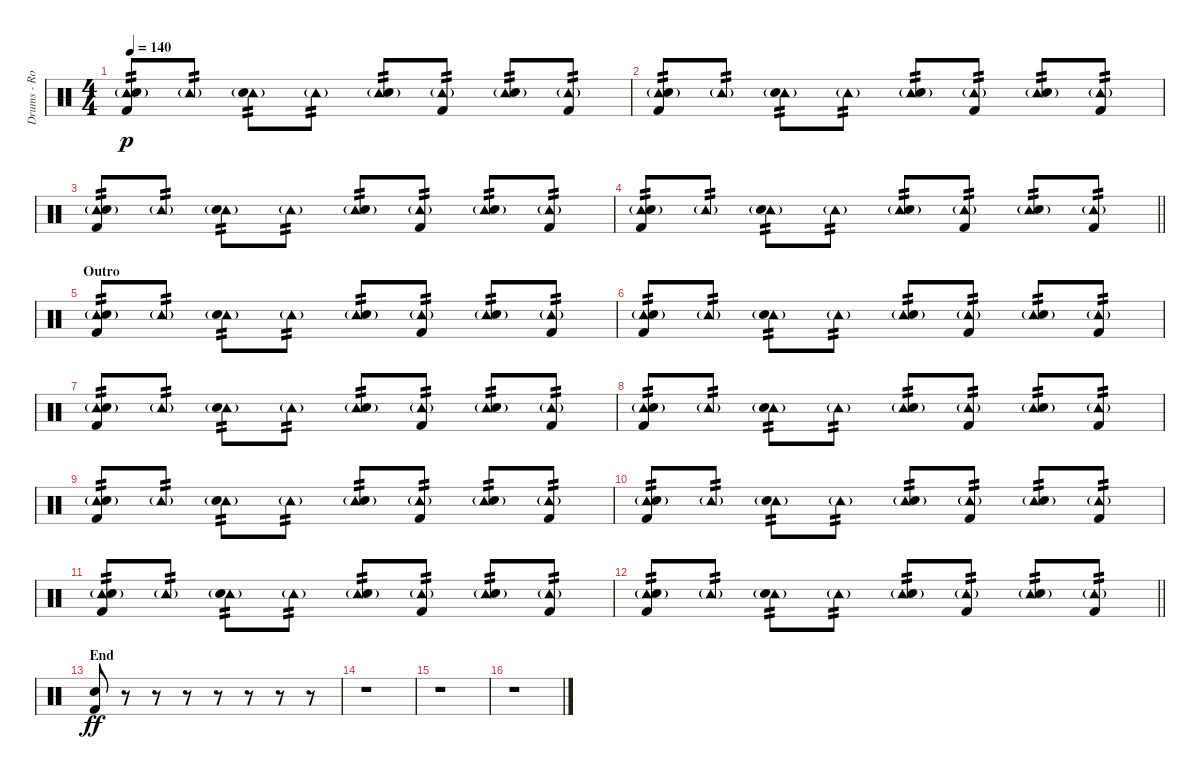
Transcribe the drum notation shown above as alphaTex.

\track ("Drums - Rob Bourdon" "Drums - Ro") {instrument percussion}
\staff {score}
\articulation defaults
\ts (4 4)
\tempo 140
\clef neutral
\ks c
("Tambourine (hit)"{g} "Electric Snare (hit)" "Kick (hit) 2").8{tp 2 dy p} "Tambourine (hit)"{g}.8{tp 2} ("Tambourine (hit)"{g} "Electric Snare (hit)").8{tp 2} "Tambourine (hit)"{g}.8{tp 2} ("Tambourine (hit)"{g} "Electric Snare (hit)").8{tp 2} ("Tambourine (hit)"{g} "Kick (hit) 2").8{tp 2} ("Tambourine (hit)"{g} "Electric Snare (hit)").8{tp 2} ("Tambourine (hit)"{g} "Kick (hit) 2").8{tp 2} |
("Tambourine (hit)"{g} "Electric Snare (hit)" "Kick (hit) 2").8{tp 2} "Tambourine (hit)"{g}.8{tp 2} ("Tambourine (hit)"{g} "Electric Snare (hit)").8{tp 2} "Tambourine (hit)"{g}.8{tp 2} ("Tambourine (hit)"{g} "Electric Snare (hit)").8{tp 2} ("Tambourine (hit)"{g} "Kick (hit) 2").8{tp 2} ("Tambourine (hit)"{g} "Electric Snare (hit)").8{tp 2} ("Tambourine (hit)"{g} "Kick (hit) 2").8{tp 2} |
("Tambourine (hit)"{g} "Electric Snare (hit)" "Kick (hit) 2").8{tp 2} "Tambourine (hit)"{g}.8{tp 2} ("Tambourine (hit)"{g} "Electric Snare (hit)").8{tp 2} "Tambourine (hit)"{g}.8{tp 2} ("Tambourine (hit)"{g} "Electric Snare (hit)").8{tp 2} ("Tambourine (hit)"{g} "Kick (hit) 2").8{tp 2} ("Tambourine (hit)"{g} "Electric Snare (hit)").8{tp 2} ("Tambourine (hit)"{g} "Kick (hit) 2").8{tp 2} |
\barLineRight lightlight
("Tambourine (hit)"{g} "Electric Snare (hit)" "Kick (hit) 2").8{tp 2} "Tambourine (hit)"{g}.8{tp 2} ("Tambourine (hit)"{g} "Electric Snare (hit)").8{tp 2} "Tambourine (hit)"{g}.8{tp 2} ("Tambourine (hit)"{g} "Electric Snare (hit)").8{tp 2} ("Tambourine (hit)"{g} "Kick (hit) 2").8{tp 2} ("Tambourine (hit)"{g} "Electric Snare (hit)").8{tp 2} ("Tambourine (hit)"{g} "Kick (hit) 2").8{tp 2} |
\section ("" "Outro")
("Tambourine (hit)"{g} "Electric Snare (hit)" "Kick (hit) 2").8{tp 2} "Tambourine (hit)"{g}.8{tp 2} ("Tambourine (hit)"{g} "Electric Snare (hit)").8{tp 2} "Tambourine (hit)"{g}.8{tp 2} ("Tambourine (hit)"{g} "Electric Snare (hit)").8{tp 2} ("Tambourine (hit)"{g} "Kick (hit) 2").8{tp 2} ("Tambourine (hit)"{g} "Electric Snare (hit)").8{tp 2} ("Tambourine (hit)"{g} "Kick (hit) 2").8{tp 2} |
("Tambourine (hit)"{g} "Electric Snare (hit)" "Kick (hit) 2").8{tp 2} "Tambourine (hit)"{g}.8{tp 2} ("Tambourine (hit)"{g} "Electric Snare (hit)").8{tp 2} "Tambourine (hit)"{g}.8{tp 2} ("Tambourine (hit)"{g} "Electric Snare (hit)").8{tp 2} ("Tambourine (hit)"{g} "Kick (hit) 2").8{tp 2} ("Tambourine (hit)"{g} "Electric Snare (hit)").8{tp 2} ("Tambourine (hit)"{g} "Kick (hit) 2").8{tp 2} |
("Tambourine (hit)"{g} "Electric Snare (hit)" "Kick (hit) 2").8{tp 2} "Tambourine (hit)"{g}.8{tp 2} ("Tambourine (hit)"{g} "Electric Snare (hit)").8{tp 2} "Tambourine (hit)"{g}.8{tp 2} ("Tambourine (hit)"{g} "Electric Snare (hit)").8{tp 2} ("Tambourine (hit)"{g} "Kick (hit) 2").8{tp 2} ("Tambourine (hit)"{g} "Electric Snare (hit)").8{tp 2} ("Tambourine (hit)"{g} "Kick (hit) 2").8{tp 2} |
("Tambourine (hit)"{g} "Electric Snare (hit)" "Kick (hit) 2").8{tp 2} "Tambourine (hit)"{g}.8{tp 2} ("Tambourine (hit)"{g} "Electric Snare (hit)").8{tp 2} "Tambourine (hit)"{g}.8{tp 2} ("Tambourine (hit)"{g} "Electric Snare (hit)").8{tp 2} ("Tambourine (hit)"{g} "Kick (hit) 2").8{tp 2} ("Tambourine (hit)"{g} "Electric Snare (hit)").8{tp 2} ("Tambourine (hit)"{g} "Kick (hit) 2").8{tp 2} |
("Tambourine (hit)"{g} "Electric Snare (hit)" "Kick (hit) 2").8{tp 2} "Tambourine (hit)"{g}.8{tp 2} ("Tambourine (hit)"{g} "Electric Snare (hit)").8{tp 2} "Tambourine (hit)"{g}.8{tp 2} ("Tambourine (hit)"{g} "Electric Snare (hit)").8{tp 2} ("Tambourine (hit)"{g} "Kick (hit) 2").8{tp 2} ("Tambourine (hit)"{g} "Electric Snare (hit)").8{tp 2} ("Tambourine (hit)"{g} "Kick (hit) 2").8{tp 2} |
("Tambourine (hit)"{g} "Electric Snare (hit)" "Kick (hit) 2").8{tp 2} "Tambourine (hit)"{g}.8{tp 2} ("Tambourine (hit)"{g} "Electric Snare (hit)").8{tp 2} "Tambourine (hit)"{g}.8{tp 2} ("Tambourine (hit)"{g} "Electric Snare (hit)").8{tp 2} ("Tambourine (hit)"{g} "Kick (hit) 2").8{tp 2} ("Tambourine (hit)"{g} "Electric Snare (hit)").8{tp 2} ("Tambourine (hit)"{g} "Kick (hit) 2").8{tp 2} |
("Tambourine (hit)"{g} "Electric Snare (hit)" "Kick (hit) 2").8{tp 2} "Tambourine (hit)"{g}.8{tp 2} ("Tambourine (hit)"{g} "Electric Snare (hit)").8{tp 2} "Tambourine (hit)"{g}.8{tp 2} ("Tambourine (hit)"{g} "Electric Snare (hit)").8{tp 2} ("Tambourine (hit)"{g} "Kick (hit) 2").8{tp 2} ("Tambourine (hit)"{g} "Electric Snare (hit)").8{tp 2} ("Tambourine (hit)"{g} "Kick (hit) 2").8{tp 2} |
\barLineRight lightlight
("Tambourine (hit)"{g} "Electric Snare (hit)" "Kick (hit) 2").8{tp 2} "Tambourine (hit)"{g}.8{tp 2} ("Tambourine (hit)"{g} "Electric Snare (hit)").8{tp 2} "Tambourine (hit)"{g}.8{tp 2} ("Tambourine (hit)"{g} "Electric Snare (hit)").8{tp 2} ("Tambourine (hit)"{g} "Kick (hit) 2").8{tp 2} ("Tambourine (hit)"{g} "Electric Snare (hit)").8{tp 2} ("Tambourine (hit)"{g} "Kick (hit) 2").8{tp 2} |
\section ("" "End")
("Electric Snare (hit)" "Kick (hit) 2").8{dy ff} r.8 r.8 r.8 r.8 r.8 r.8 r.8 |
r.1 |
r.1 |
r.1
